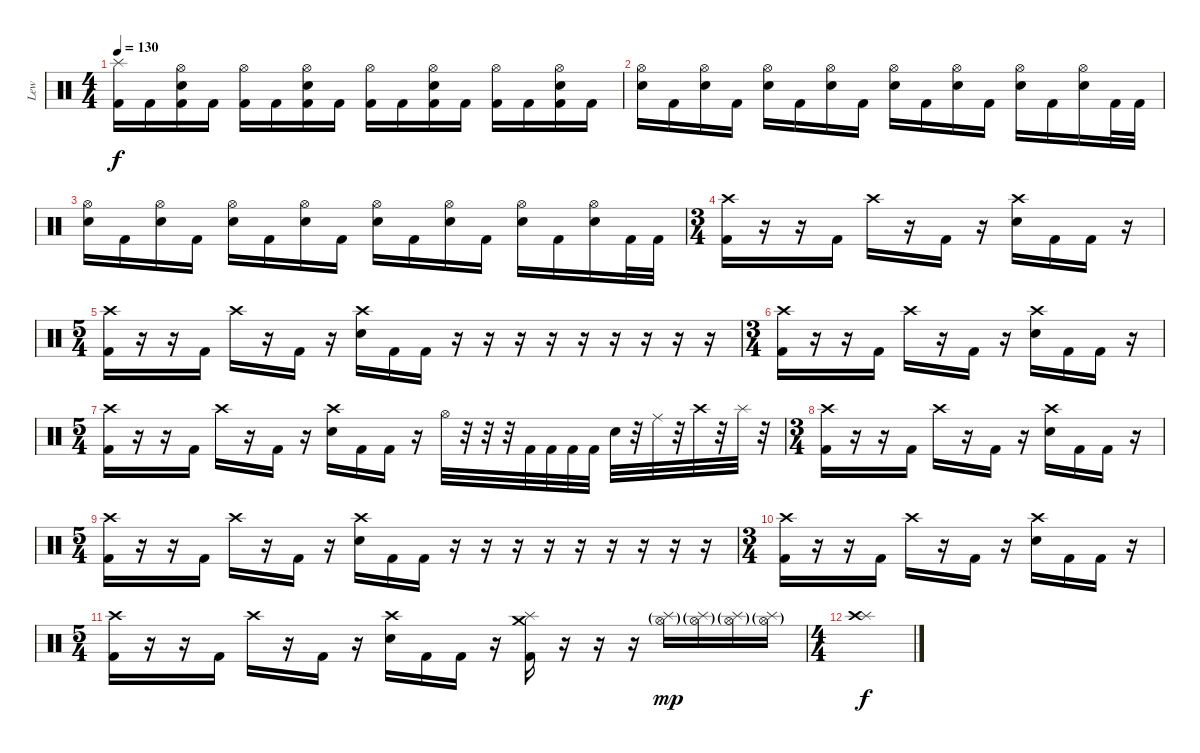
\track ("Lew" "Lew") {instrument percussion}
\staff {score}
\articulation defaults
\ts (4 4)
\tempo 130
\clef neutral
\ks c
("Splash (hit)" "Kick (hit) 2").16{dy f} "Kick (hit) 2".16 ("Hi-Hat (open)" "Electric Snare (hit)" "Kick (hit) 2").16 "Kick (hit) 2".16 ("Hi-Hat (open)" "Kick (hit) 2").16 "Kick (hit) 2".16 ("Hi-Hat (open)" "Electric Snare (hit)" "Kick (hit) 2").16 "Kick (hit) 2".16 ("Hi-Hat (open)" "Kick (hit) 2").16 "Kick (hit) 2".16 ("Hi-Hat (open)" "Electric Snare (hit)" "Kick (hit) 2").16 "Kick (hit) 2".16 ("Hi-Hat (open)" "Kick (hit) 2").16 "Kick (hit) 2".16 ("Hi-Hat (open)" "Electric Snare (hit)" "Kick (hit) 2").16 "Kick (hit) 2".16 |
("Hi-Hat (open)" "Electric Snare (hit)").16 "Kick (hit) 2".16 ("Hi-Hat (open)" "Electric Snare (hit)").16 "Kick (hit) 2".16 ("Hi-Hat (open)" "Electric Snare (hit)").16 "Kick (hit) 2".16 ("Hi-Hat (open)" "Electric Snare (hit)").16 "Kick (hit) 2".16 ("Hi-Hat (open)" "Electric Snare (hit)").16 "Kick (hit) 2".16 ("Hi-Hat (open)" "Electric Snare (hit)").16 "Kick (hit) 2".16 ("Hi-Hat (open)" "Electric Snare (hit)").16 "Kick (hit) 2".16 ("Hi-Hat (open)" "Electric Snare (hit)").16 "Kick (hit) 2".32 "Kick (hit) 2".32 |
("Hi-Hat (open)" "Electric Snare (hit)").16 "Kick (hit) 2".16 ("Hi-Hat (open)" "Electric Snare (hit)").16 "Kick (hit) 2".16 ("Hi-Hat (open)" "Electric Snare (hit)").16 "Kick (hit) 2".16 ("Hi-Hat (open)" "Electric Snare (hit)").16 "Kick (hit) 2".16 ("Hi-Hat (open)" "Electric Snare (hit)").16 "Kick (hit) 2".16 ("Hi-Hat (open)" "Electric Snare (hit)").16 "Kick (hit) 2".16 ("Hi-Hat (open)" "Electric Snare (hit)").16 "Kick (hit) 2".16 ("Hi-Hat (open)" "Electric Snare (hit)").16 "Kick (hit) 2".32 "Kick (hit) 2".32 |
\ts (3 4)
("Crash high (hit)" "Kick (hit) 2").16 r.16 r.16 "Kick (hit) 2".16 "Crash high (hit)".16 r.16 "Kick (hit) 2".16 r.16 ("Crash high (hit)" "Electric Snare (hit)").16 "Kick (hit) 2".16 "Kick (hit) 2".16 r.16 |
\ts (5 4)
("Crash high (hit)" "Kick (hit) 2").16 r.16 r.16 "Kick (hit) 2".16 "Crash high (hit)".16 r.16 "Kick (hit) 2".16 r.16 ("Crash high (hit)" "Electric Snare (hit)").16 "Kick (hit) 2".16 "Kick (hit) 2".16 r.16 r.16 r.16 r.16 r.16 r.16 r.16 r.16 r.16 |
\ts (3 4)
("Crash high (hit)" "Kick (hit) 2").16 r.16 r.16 "Kick (hit) 2".16 "Crash high (hit)".16 r.16 "Kick (hit) 2".16 r.16 ("Crash high (hit)" "Electric Snare (hit)").16 "Kick (hit) 2".16 "Kick (hit) 2".16 r.16 |
\ts (5 4)
("Crash high (hit)" "Kick (hit) 2").16 r.16 r.16 "Kick (hit) 2".16 "Crash high (hit)".16 r.16 "Kick (hit) 2".16 r.16 ("Crash high (hit)" "Electric Snare (hit)").16 "Kick (hit) 2".16 "Kick (hit) 2".16 r.16 "Hi-Hat (open)".32 r.32 r.32 r.32 "Kick (hit) 2".32 "Kick (hit) 2".32 "Kick (hit) 2".32 "Kick (hit) 2".32 "Electric Snare (hit)".32 r.32 "Ride (middle)".32 r.32 "Crash high (hit)".32 r.32 "Splash (hit)".32 r.32 |
\ts (3 4)
("Crash high (hit)" "Kick (hit) 2").16 r.16 r.16 "Kick (hit) 2".16 "Crash high (hit)".16 r.16 "Kick (hit) 2".16 r.16 ("Crash high (hit)" "Electric Snare (hit)").16 "Kick (hit) 2".16 "Kick (hit) 2".16 r.16 |
\ts (5 4)
("Crash high (hit)" "Kick (hit) 2").16 r.16 r.16 "Kick (hit) 2".16 "Crash high (hit)".16 r.16 "Kick (hit) 2".16 r.16 ("Crash high (hit)" "Electric Snare (hit)").16 "Kick (hit) 2".16 "Kick (hit) 2".16 r.16 r.16 r.16 r.16 r.16 r.16 r.16 r.16 r.16 |
\ts (3 4)
("Crash high (hit)" "Kick (hit) 2").16 r.16 r.16 "Kick (hit) 2".16 "Crash high (hit)".16 r.16 "Kick (hit) 2".16 r.16 ("Crash high (hit)" "Electric Snare (hit)").16 "Kick (hit) 2".16 "Kick (hit) 2".16 r.16 |
\ts (5 4)
("Crash high (hit)" "Kick (hit) 2").16 r.16 r.16 "Kick (hit) 2".16 "Crash high (hit)".16 r.16 "Kick (hit) 2".16 r.16 ("Crash high (hit)" "Electric Snare (hit)").16 "Kick (hit) 2".16 "Kick (hit) 2".16 r.16 ("Crash medium (hit)" "Splash (hit)" "Kick (hit) 2").16 r.16 r.16 r.16 ("Splash (hit)"{g} "Hi-Hat (open)"{g}).16{dy mp} ("Splash (hit)"{g} "Hi-Hat (open)"{g}).16 ("Splash (hit)"{g} "Hi-Hat (open)"{g}).16 ("Splash (hit)"{g} "Hi-Hat (open)"{g}).16 |
\ts (4 4)
("Splash (hit)" "Crash high (hit)").1{dy f}
